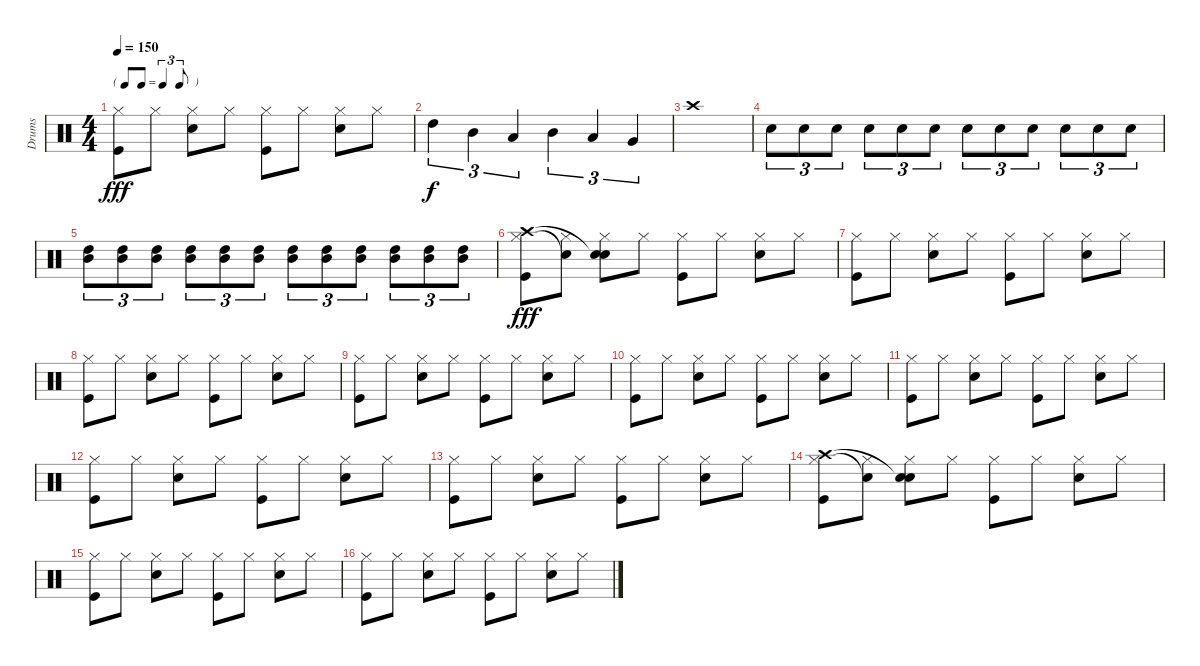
\track ("Drums" "Drums") {instrument percussion}
\staff {score}
\articulation defaults
\ts (4 4)
\tf triplet8th
\tempo 150
\clef neutral
\ks c
("Kick (hit)" "Hi-Hat (closed)").8{dy fff} "Hi-Hat (closed)".8 ("Snare (hit) 2" "Hi-Hat (closed)").8 "Hi-Hat (closed)".8 ("Kick (hit)" "Hi-Hat (closed)").8 "Hi-Hat (closed)".8 ("Snare (hit) 2" "Hi-Hat (closed)").8 "Hi-Hat (closed)".8 |
"High Tom (hit)".4{tu (3 2) dy f} "Mid Tom (hit)".4{tu (3 2)} "Low Tom (hit)".4{tu (3 2)} "Mid Tom (hit)".4{tu (3 2)} "Low Tom (hit)".4{tu (3 2)} "Very Low Tom (hit)".4{tu (3 2)} |
"Crash high (hit)".1 |
"Snare (hit) 2".8{tu (3 2)} "Snare (hit) 2".8{tu (3 2)} "Snare (hit) 2".8{tu (3 2)} "Snare (hit) 2".8{tu (3 2)} "Snare (hit) 2".8{tu (3 2)} "Snare (hit) 2".8{tu (3 2)} "Snare (hit) 2".8{tu (3 2)} "Snare (hit) 2".8{tu (3 2)} "Snare (hit) 2".8{tu (3 2)} "Snare (hit) 2".8{tu (3 2)} "Snare (hit) 2".8{tu (3 2)} "Snare (hit) 2".8{tu (3 2)} |
("Mid Tom (hit)" "High Tom (hit)").8{tu (3 2)} ("Mid Tom (hit)" "High Tom (hit)").8{tu (3 2)} ("Mid Tom (hit)" "High Tom (hit)").8{tu (3 2)} ("Mid Tom (hit)" "High Tom (hit)").8{tu (3 2)} ("Mid Tom (hit)" "High Tom (hit)").8{tu (3 2)} ("Mid Tom (hit)" "High Tom (hit)").8{tu (3 2)} ("Mid Tom (hit)" "High Tom (hit)").8{tu (3 2)} ("Mid Tom (hit)" "High Tom (hit)").8{tu (3 2)} ("Mid Tom (hit)" "High Tom (hit)").8{tu (3 2)} ("Mid Tom (hit)" "High Tom (hit)").8{tu (3 2)} ("Mid Tom (hit)" "High Tom (hit)").8{tu (3 2)} ("Mid Tom (hit)" "High Tom (hit)").8{tu (3 2)} |
("Kick (hit)" "Hi-Hat (closed)" "Crash high (hit)").8{dy fff} ("Hi-Hat (closed)" "Snare (hit)"{t}).8 ("Snare (hit) 2" "Hi-Hat (closed)" "Snare (hit)"{t}).8 "Hi-Hat (closed)".8 ("Kick (hit)" "Hi-Hat (closed)").8 "Hi-Hat (closed)".8 ("Snare (hit) 2" "Hi-Hat (closed)").8 "Hi-Hat (closed)".8 |
("Kick (hit)" "Hi-Hat (closed)").8 "Hi-Hat (closed)".8 ("Snare (hit) 2" "Hi-Hat (closed)").8 "Hi-Hat (closed)".8 ("Kick (hit)" "Hi-Hat (closed)").8 "Hi-Hat (closed)".8 ("Snare (hit) 2" "Hi-Hat (closed)").8 "Hi-Hat (closed)".8 |
("Kick (hit)" "Hi-Hat (closed)").8 "Hi-Hat (closed)".8 ("Snare (hit) 2" "Hi-Hat (closed)").8 "Hi-Hat (closed)".8 ("Kick (hit)" "Hi-Hat (closed)").8 "Hi-Hat (closed)".8 ("Snare (hit) 2" "Hi-Hat (closed)").8 "Hi-Hat (closed)".8 |
("Kick (hit)" "Hi-Hat (closed)").8 "Hi-Hat (closed)".8 ("Snare (hit) 2" "Hi-Hat (closed)").8 "Hi-Hat (closed)".8 ("Kick (hit)" "Hi-Hat (closed)").8 "Hi-Hat (closed)".8 ("Snare (hit) 2" "Hi-Hat (closed)").8 "Hi-Hat (closed)".8 |
("Kick (hit)" "Hi-Hat (closed)").8 "Hi-Hat (closed)".8 ("Snare (hit) 2" "Hi-Hat (closed)").8 "Hi-Hat (closed)".8 ("Kick (hit)" "Hi-Hat (closed)").8 "Hi-Hat (closed)".8 ("Snare (hit) 2" "Hi-Hat (closed)").8 "Hi-Hat (closed)".8 |
("Kick (hit)" "Hi-Hat (closed)").8 "Hi-Hat (closed)".8 ("Snare (hit) 2" "Hi-Hat (closed)").8 "Hi-Hat (closed)".8 ("Kick (hit)" "Hi-Hat (closed)").8 "Hi-Hat (closed)".8 ("Snare (hit) 2" "Hi-Hat (closed)").8 "Hi-Hat (closed)".8 |
("Kick (hit)" "Hi-Hat (closed)").8 "Hi-Hat (closed)".8 ("Snare (hit) 2" "Hi-Hat (closed)").8 "Hi-Hat (closed)".8 ("Kick (hit)" "Hi-Hat (closed)").8 "Hi-Hat (closed)".8 ("Snare (hit) 2" "Hi-Hat (closed)").8 "Hi-Hat (closed)".8 |
("Kick (hit)" "Hi-Hat (closed)").8 "Hi-Hat (closed)".8 ("Snare (hit) 2" "Hi-Hat (closed)").8 "Hi-Hat (closed)".8 ("Kick (hit)" "Hi-Hat (closed)").8 "Hi-Hat (closed)".8 ("Snare (hit) 2" "Hi-Hat (closed)").8 "Hi-Hat (closed)".8 |
("Kick (hit)" "Hi-Hat (closed)" "Crash high (hit)").8 ("Hi-Hat (closed)" "Snare (hit)"{t}).8 ("Snare (hit) 2" "Hi-Hat (closed)" "Snare (hit)"{t}).8 "Hi-Hat (closed)".8 ("Kick (hit)" "Hi-Hat (closed)").8 "Hi-Hat (closed)".8 ("Snare (hit) 2" "Hi-Hat (closed)").8 "Hi-Hat (closed)".8 |
("Kick (hit)" "Hi-Hat (closed)").8 "Hi-Hat (closed)".8 ("Snare (hit) 2" "Hi-Hat (closed)").8 "Hi-Hat (closed)".8 ("Kick (hit)" "Hi-Hat (closed)").8 "Hi-Hat (closed)".8 ("Snare (hit) 2" "Hi-Hat (closed)").8 "Hi-Hat (closed)".8 |
("Kick (hit)" "Hi-Hat (closed)").8 "Hi-Hat (closed)".8 ("Snare (hit) 2" "Hi-Hat (closed)").8 "Hi-Hat (closed)".8 ("Kick (hit)" "Hi-Hat (closed)").8 "Hi-Hat (closed)".8 ("Snare (hit) 2" "Hi-Hat (closed)").8 "Hi-Hat (closed)".8
